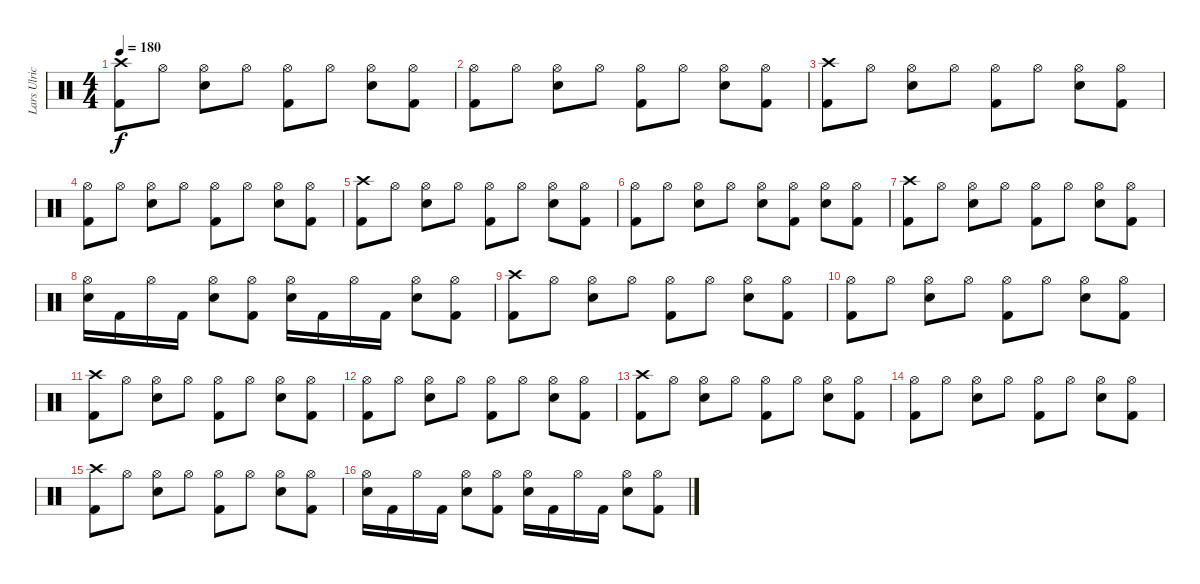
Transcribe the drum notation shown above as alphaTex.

\track ("Lars Ulrich" "Lars Ulric") {instrument percussion}
\staff {score}
\articulation defaults
\ts (4 4)
\tempo 180
\clef neutral
\ks c
("Kick (hit) 2" "Crash high (hit)").8{dy f} "Hi-Hat (open)".8 ("Snare (hit) 2" "Hi-Hat (open)").8 "Hi-Hat (open)".8 ("Kick (hit) 2" "Hi-Hat (open)").8 "Hi-Hat (open)".8 ("Snare (hit) 2" "Hi-Hat (open)").8 ("Kick (hit) 2" "Hi-Hat (open)").8 |
("Kick (hit) 2" "Hi-Hat (open)").8 "Hi-Hat (open)".8 ("Snare (hit) 2" "Hi-Hat (open)").8 "Hi-Hat (open)".8 ("Kick (hit) 2" "Hi-Hat (open)").8 "Hi-Hat (open)".8 ("Snare (hit) 2" "Hi-Hat (open)").8 ("Kick (hit) 2" "Hi-Hat (open)").8 |
("Kick (hit) 2" "Crash high (hit)").8 "Hi-Hat (open)".8 ("Snare (hit) 2" "Hi-Hat (open)").8 "Hi-Hat (open)".8 ("Kick (hit) 2" "Hi-Hat (open)").8 "Hi-Hat (open)".8 ("Snare (hit) 2" "Hi-Hat (open)").8 ("Kick (hit) 2" "Hi-Hat (open)").8 |
("Kick (hit) 2" "Hi-Hat (open)").8 "Hi-Hat (open)".8 ("Snare (hit) 2" "Hi-Hat (open)").8 "Hi-Hat (open)".8 ("Kick (hit) 2" "Hi-Hat (open)").8 "Hi-Hat (open)".8 ("Snare (hit) 2" "Hi-Hat (open)").8 ("Kick (hit) 2" "Hi-Hat (open)").8 |
("Kick (hit) 2" "Crash high (hit)").8 "Hi-Hat (open)".8 ("Snare (hit) 2" "Hi-Hat (open)").8 "Hi-Hat (open)".8 ("Kick (hit) 2" "Hi-Hat (open)").8 "Hi-Hat (open)".8 ("Snare (hit) 2" "Hi-Hat (open)").8 ("Kick (hit) 2" "Hi-Hat (open)").8 |
("Kick (hit) 2" "Hi-Hat (open)").8 "Hi-Hat (open)".8 ("Snare (hit) 2" "Hi-Hat (open)").8 "Hi-Hat (open)".8 ("Snare (hit) 2" "Hi-Hat (open)").8 ("Kick (hit) 2" "Hi-Hat (open)").8 ("Snare (hit) 2" "Hi-Hat (open)").8 ("Kick (hit) 2" "Hi-Hat (open)").8 |
("Kick (hit) 2" "Crash high (hit)").8 "Hi-Hat (open)".8 ("Snare (hit) 2" "Hi-Hat (open)").8 "Hi-Hat (open)".8 ("Kick (hit) 2" "Hi-Hat (open)").8 "Hi-Hat (open)".8 ("Snare (hit) 2" "Hi-Hat (open)").8 ("Kick (hit) 2" "Hi-Hat (open)").8 |
("Snare (hit) 2" "Hi-Hat (open)").16 "Kick (hit) 2".16 "Hi-Hat (open)".16 "Kick (hit) 2".16 ("Snare (hit) 2" "Hi-Hat (open)").8 ("Kick (hit) 2" "Hi-Hat (open)").8 ("Snare (hit) 2" "Hi-Hat (open)").16 "Kick (hit) 2".16 "Hi-Hat (open)".16 "Kick (hit) 2".16 ("Snare (hit) 2" "Hi-Hat (open)").8 ("Kick (hit) 2" "Hi-Hat (open)").8 |
("Kick (hit) 2" "Crash high (hit)").8 "Hi-Hat (open)".8 ("Snare (hit) 2" "Hi-Hat (open)").8 "Hi-Hat (open)".8 ("Kick (hit) 2" "Hi-Hat (open)").8 "Hi-Hat (open)".8 ("Snare (hit) 2" "Hi-Hat (open)").8 ("Kick (hit) 2" "Hi-Hat (open)").8 |
("Kick (hit) 2" "Hi-Hat (open)").8 "Hi-Hat (open)".8 ("Snare (hit) 2" "Hi-Hat (open)").8 "Hi-Hat (open)".8 ("Kick (hit) 2" "Hi-Hat (open)").8 "Hi-Hat (open)".8 ("Snare (hit) 2" "Hi-Hat (open)").8 ("Kick (hit) 2" "Hi-Hat (open)").8 |
("Kick (hit) 2" "Crash high (hit)").8 "Hi-Hat (open)".8 ("Snare (hit) 2" "Hi-Hat (open)").8 "Hi-Hat (open)".8 ("Kick (hit) 2" "Hi-Hat (open)").8 "Hi-Hat (open)".8 ("Snare (hit) 2" "Hi-Hat (open)").8 ("Kick (hit) 2" "Hi-Hat (open)").8 |
("Kick (hit) 2" "Hi-Hat (open)").8 "Hi-Hat (open)".8 ("Snare (hit) 2" "Hi-Hat (open)").8 "Hi-Hat (open)".8 ("Kick (hit) 2" "Hi-Hat (open)").8 "Hi-Hat (open)".8 ("Snare (hit) 2" "Hi-Hat (open)").8 ("Kick (hit) 2" "Hi-Hat (open)").8 |
("Kick (hit) 2" "Crash high (hit)").8 "Hi-Hat (open)".8 ("Snare (hit) 2" "Hi-Hat (open)").8 "Hi-Hat (open)".8 ("Kick (hit) 2" "Hi-Hat (open)").8 "Hi-Hat (open)".8 ("Snare (hit) 2" "Hi-Hat (open)").8 ("Kick (hit) 2" "Hi-Hat (open)").8 |
("Kick (hit) 2" "Hi-Hat (open)").8 "Hi-Hat (open)".8 ("Snare (hit) 2" "Hi-Hat (open)").8 "Hi-Hat (open)".8 ("Kick (hit) 2" "Hi-Hat (open)").8 "Hi-Hat (open)".8 ("Snare (hit) 2" "Hi-Hat (open)").8 ("Kick (hit) 2" "Hi-Hat (open)").8 |
("Kick (hit) 2" "Crash high (hit)").8 "Hi-Hat (open)".8 ("Snare (hit) 2" "Hi-Hat (open)").8 "Hi-Hat (open)".8 ("Kick (hit) 2" "Hi-Hat (open)").8 "Hi-Hat (open)".8 ("Snare (hit) 2" "Hi-Hat (open)").8 ("Kick (hit) 2" "Hi-Hat (open)").8 |
("Snare (hit) 2" "Hi-Hat (open)").16 "Kick (hit) 2".16 "Hi-Hat (open)".16 "Kick (hit) 2".16 ("Snare (hit) 2" "Hi-Hat (open)").8 ("Kick (hit) 2" "Hi-Hat (open)").8 ("Snare (hit) 2" "Hi-Hat (open)").16 "Kick (hit) 2".16 "Hi-Hat (open)".16 "Kick (hit) 2".16 ("Snare (hit) 2" "Hi-Hat (open)").8 ("Kick (hit) 2" "Hi-Hat (open)").8
